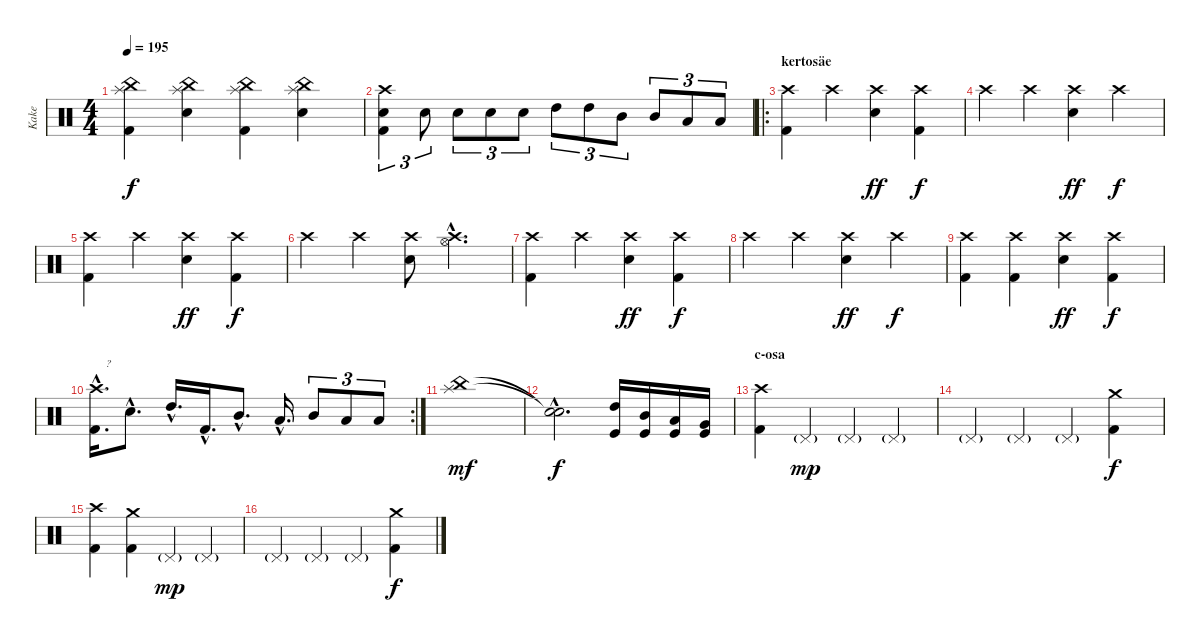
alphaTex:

\track ("Kake " "Kake ") {instrument percussion}
\staff {score}
\articulation defaults
\ts (4 4)
\tempo 195
\clef neutral
\ks c
("China (hit)" "Splash (hit)" "Kick (hit) 2").4{dy f} ("China (hit)" "Splash (hit)" "Electric Snare (hit)").4 ("China (hit)" "Splash (hit)" "Kick (hit) 2").4 ("China (hit)" "Splash (hit)" "Electric Snare (hit)").4 |
("Crash high (hit)" "Electric Snare (hit)" "Kick (hit) 2").4{tu (3 2)} "Electric Snare (hit)".8{tu (3 2)} "Electric Snare (hit)".8{tu (3 2)} "Electric Snare (hit)".8{tu (3 2)} "Electric Snare (hit)".8{tu (3 2)} "High Tom (hit)".8{tu (3 2)} "High Tom (hit)".8{tu (3 2)} "Mid Tom (hit)".8{tu (3 2)} "Mid Tom (hit)".8{tu (3 2)} "Low Tom (hit)".8{tu (3 2)} "Low Tom (hit)".8{tu (3 2)} |
\ro
\section ("" "kertosäe")
("Crash high (hit)" "Kick (hit) 2").4 "Crash high (hit)".4 ("Crash high (hit)" "Electric Snare (hit)").4{dy ff} ("Crash high (hit)" "Kick (hit) 2").4{dy f} |
"Crash high (hit)".4 "Crash high (hit)".4 ("Crash high (hit)" "Electric Snare (hit)").4{dy ff} "Crash high (hit)".4{dy f} |
("Crash high (hit)" "Kick (hit) 2").4 "Crash high (hit)".4 ("Crash high (hit)" "Electric Snare (hit)").4{dy ff} ("Crash high (hit)" "Kick (hit) 2").4{dy f} |
"Crash high (hit)".4 "Crash high (hit)".4 ("Crash high (hit)"{pm} "Electric Snare (hit)").8 ("Hi-Hat (open)"{hac} "Crash high (hit)"{hac}).4{d} |
("Crash high (hit)" "Kick (hit) 2").4 "Crash high (hit)".4 ("Crash high (hit)" "Electric Snare (hit)").4{dy ff} ("Crash high (hit)" "Kick (hit) 2").4{dy f} |
"Crash high (hit)".4 "Crash high (hit)".4 ("Crash high (hit)" "Electric Snare (hit)").4{dy ff} "Crash high (hit)".4{dy f} |
("Crash high (hit)" "Kick (hit) 2").4 ("Crash high (hit)" "Kick (hit) 2").4 ("Crash high (hit)" "Electric Snare (hit)").4{dy ff} ("Crash high (hit)" "Kick (hit) 2").4{dy f} |
\rc 2
("Crash high (hit)"{hac} "Kick (hit) 2"{hac}).16{d txt "   ?"} "Electric Snare (hit)"{hac}.8{d} "High Tom (hit)"{hac}.16{d} "Kick (hit) 2"{hac}.16{d} "Mid Tom (hit)"{hac}.8{d} "Low Tom (hit)"{hac}.16{d} "Mid Tom (hit)".8{tu (3 2)} "Low Tom (hit)".8{tu (3 2)} "Low Tom (hit)".8{tu (3 2)} |
\section ("" "")
("China (hit)" "Splash (hit)").1{dy mf} |
("Snare (hit)"{hac t} "Snare (hit)"{hac t}).2{d dy f} ("High Tom (hit)" "Kick (hit)").16 ("Mid Tom (hit)" "Kick (hit)").16 ("Low Tom (hit)" "Kick (hit)").16 ("Very Low Tom (hit)" "Kick (hit)").16 |
\section ("" "c-osa")
("Crash high (hit)" "Kick (hit) 2").4 "Pedal Hi-Hat (hit)"{g}.4{dy mp} "Pedal Hi-Hat (hit)"{g}.4 "Pedal Hi-Hat (hit)"{g}.4 |
"Pedal Hi-Hat (hit)"{g}.4 "Pedal Hi-Hat (hit)"{g}.4 "Pedal Hi-Hat (hit)"{g}.4 ("Crash medium (hit)" "Kick (hit) 2").4{dy f} |
("Crash high (hit)" "Kick (hit) 2").4 ("Crash medium (hit)" "Kick (hit) 2").4 "Pedal Hi-Hat (hit)"{g}.4{dy mp} "Pedal Hi-Hat (hit)"{g}.4 |
"Pedal Hi-Hat (hit)"{g}.4 "Pedal Hi-Hat (hit)"{g}.4 "Pedal Hi-Hat (hit)"{g}.4 ("Crash medium (hit)" "Kick (hit) 2").4{dy f}
